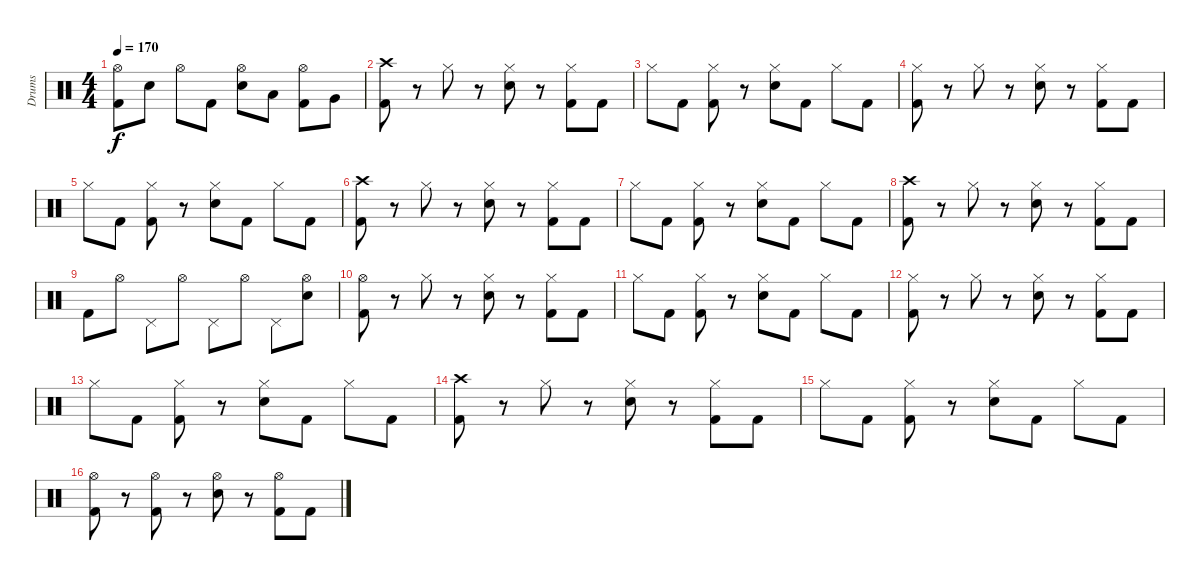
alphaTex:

\track ("Drums" "Drums") {instrument percussion}
\staff {score}
\articulation defaults
\ts (4 4)
\tempo 170
\clef neutral
\ks c
("Hi-Hat (open)" "Kick (hit) 2").8{dy f} "Electric Snare (hit)".8 "Hi-Hat (open)".8 "Kick (hit) 2".8 ("Hi-Hat (open)" "Electric Snare (hit)").8 "Low Tom (hit)".8 ("Hi-Hat (open)" "Kick (hit) 2").8 "Very Low Tom (hit)".8 |
("Crash high (hit)" "Kick (hit) 2").8 r.8 "Hi-Hat (closed)".8 r.8 ("Hi-Hat (closed)" "Electric Snare (hit)").8 r.8 ("Hi-Hat (closed)" "Kick (hit) 2").8 "Kick (hit) 2".8 |
"Hi-Hat (closed)".8 "Kick (hit) 2".8 ("Hi-Hat (closed)" "Kick (hit) 2").8 r.8 ("Hi-Hat (closed)" "Electric Snare (hit)").8 "Kick (hit) 2".8 "Hi-Hat (closed)".8 "Kick (hit) 2".8 |
("Hi-Hat (closed)" "Kick (hit) 2").8 r.8 "Hi-Hat (closed)".8 r.8 ("Hi-Hat (closed)" "Electric Snare (hit)").8 r.8 ("Hi-Hat (closed)" "Kick (hit) 2").8 "Kick (hit) 2".8 |
"Hi-Hat (closed)".8 "Kick (hit) 2".8 ("Hi-Hat (closed)" "Kick (hit) 2").8 r.8 ("Hi-Hat (closed)" "Electric Snare (hit)").8 "Kick (hit) 2".8 "Hi-Hat (closed)".8 "Kick (hit) 2".8 |
("Crash high (hit)" "Kick (hit) 2").8 r.8 "Hi-Hat (closed)".8 r.8 ("Hi-Hat (closed)" "Electric Snare (hit)").8 r.8 ("Hi-Hat (closed)" "Kick (hit) 2").8 "Kick (hit) 2".8 |
"Hi-Hat (closed)".8 "Kick (hit) 2".8 ("Hi-Hat (closed)" "Kick (hit) 2").8 r.8 ("Hi-Hat (closed)" "Electric Snare (hit)").8 "Kick (hit) 2".8 "Hi-Hat (closed)".8 "Kick (hit) 2".8 |
("Crash high (hit)" "Kick (hit) 2").8 r.8 "Hi-Hat (closed)".8 r.8 ("Hi-Hat (closed)" "Electric Snare (hit)").8 r.8 ("Hi-Hat (closed)" "Kick (hit) 2").8 "Kick (hit) 2".8 |
"Kick (hit) 2".8 "Hi-Hat (open)".8 "Pedal Hi-Hat (hit)".8 "Hi-Hat (open)".8 "Pedal Hi-Hat (hit)".8 "Hi-Hat (open)".8 "Pedal Hi-Hat (hit)".8 ("Hi-Hat (open)" "Electric Snare (hit)").8 |
("Hi-Hat (open)" "Kick (hit) 2").8 r.8 "Hi-Hat (closed)".8 r.8 ("Hi-Hat (closed)" "Electric Snare (hit)").8 r.8 ("Hi-Hat (closed)" "Kick (hit) 2").8 "Kick (hit) 2".8 |
"Hi-Hat (closed)".8 "Kick (hit) 2".8 ("Hi-Hat (closed)" "Kick (hit) 2").8 r.8 ("Hi-Hat (closed)" "Electric Snare (hit)").8 "Kick (hit) 2".8 "Hi-Hat (closed)".8 "Kick (hit) 2".8 |
("Hi-Hat (closed)" "Kick (hit) 2").8 r.8 "Hi-Hat (closed)".8 r.8 ("Hi-Hat (closed)" "Electric Snare (hit)").8 r.8 ("Hi-Hat (closed)" "Kick (hit) 2").8 "Kick (hit) 2".8 |
"Hi-Hat (closed)".8 "Kick (hit) 2".8 ("Hi-Hat (closed)" "Kick (hit) 2").8 r.8 ("Hi-Hat (closed)" "Electric Snare (hit)").8 "Kick (hit) 2".8 "Hi-Hat (closed)".8 "Kick (hit) 2".8 |
("Crash high (hit)" "Kick (hit) 2").8 r.8 "Hi-Hat (closed)".8 r.8 ("Hi-Hat (closed)" "Electric Snare (hit)").8 r.8 ("Hi-Hat (closed)" "Kick (hit) 2").8 "Kick (hit) 2".8 |
"Hi-Hat (closed)".8 "Kick (hit) 2".8 ("Hi-Hat (closed)" "Kick (hit) 2").8 r.8 ("Hi-Hat (closed)" "Electric Snare (hit)").8 "Kick (hit) 2".8 "Hi-Hat (closed)".8 "Kick (hit) 2".8 |
("Hi-Hat (open)" "Kick (hit) 2").8 r.8 ("Hi-Hat (open)" "Kick (hit) 2").8 r.8 ("Hi-Hat (open)" "Electric Snare (hit)").8 r.8 ("Hi-Hat (open)" "Kick (hit) 2").8 "Kick (hit) 2".8
